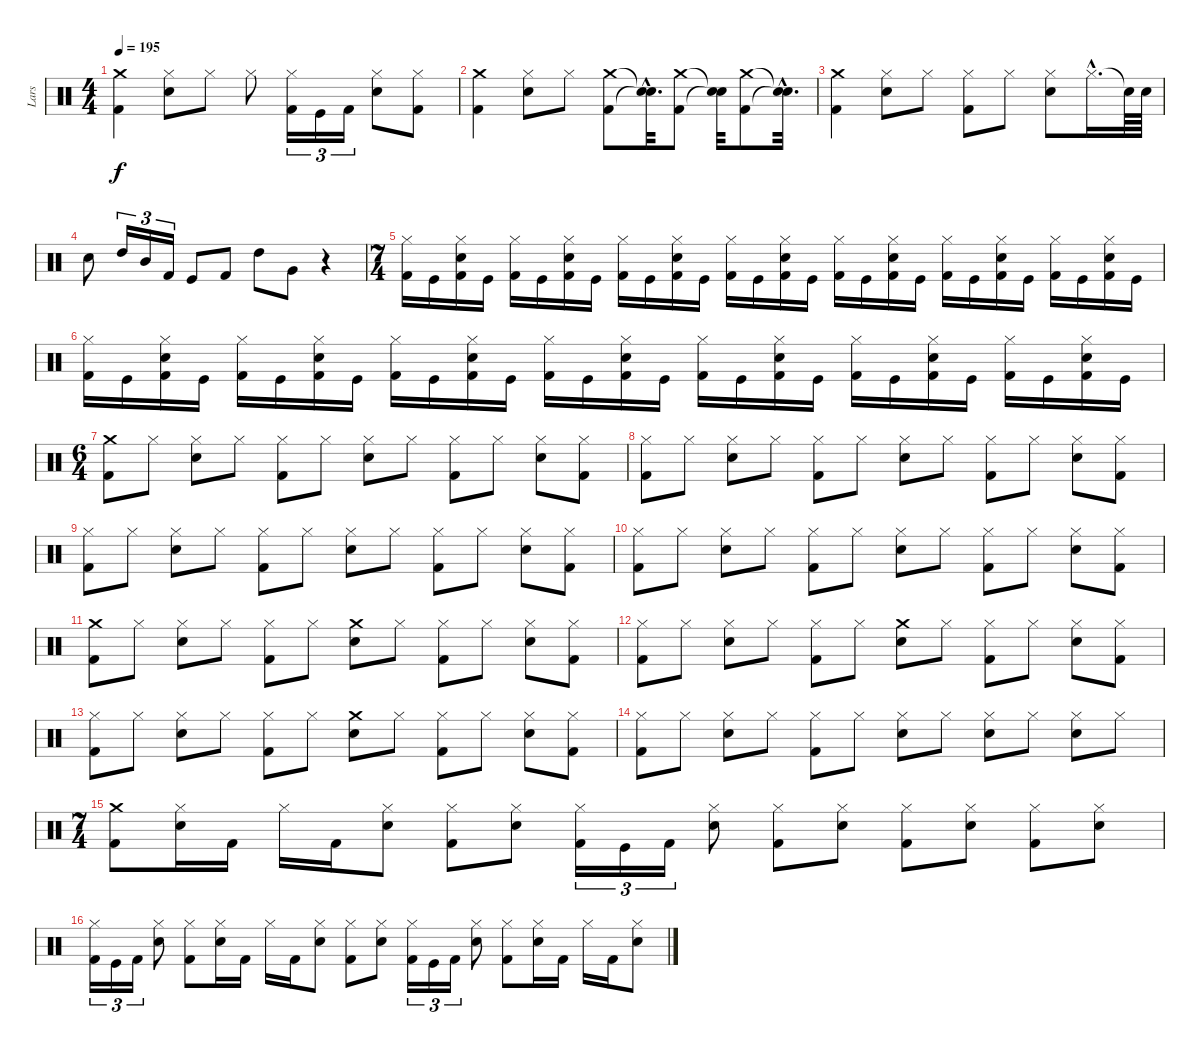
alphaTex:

\track ("Lars" "Lars") {instrument percussion}
\staff {score}
\articulation defaults
\ts (4 4)
\tempo 195
\clef neutral
\ks c
("Kick (hit) 2" "Crash medium (hit)").4{dy f} ("Snare (hit) 2" "Hi-Hat (closed)").8 "Hi-Hat (closed)".8 "Hi-Hat (closed)".8 ("Kick (hit) 2" "Hi-Hat (closed)").16{tu (3 2)} "Kick (hit)".16{tu (3 2)} "Kick (hit) 2".16{tu (3 2)} ("Snare (hit) 2" "Hi-Hat (closed)").8 ("Kick (hit) 2" "Hi-Hat (closed)").8 |
("Kick (hit) 2" "Crash medium (hit)").4 ("Hi-Hat (closed)" "Snare (hit) 2").8 "Hi-Hat (closed)".8 ("Kick (hit) 2" "Crash medium (hit)").8 ("Snare (hit)"{hac t} "Snare (hit)"{hac t}).32{d} ("Kick (hit) 2" "Crash medium (hit)").8 ("Snare (hit)"{t} "Snare (hit)"{t}).32 ("Kick (hit) 2" "Crash medium (hit)").8 ("Snare (hit)"{hac t} "Snare (hit)"{hac t}).32{d} |
("Kick (hit) 2" "Crash medium (hit)").4 ("Hi-Hat (closed)" "Snare (hit) 2").8 "Hi-Hat (closed)".8 ("Hi-Hat (closed)" "Kick (hit) 2").8 "Hi-Hat (closed)".8 ("Snare (hit) 2" "Hi-Hat (closed)").8 "Hi-Hat (closed)"{hac}.16{d} "Snare (hit)"{t}.64 "Snare (hit) 2".64 |
"Snare (hit) 2".8 "High Tom (hit)".16{tu (3 2)} "Mid Tom (hit)".16{tu (3 2)} "Kick (hit) 2".16{tu (3 2)} "Kick (hit)".8 "Kick (hit) 2".8 "High Tom (hit)".8 "Very Low Tom (hit)".8 r.4 |
\ts (7 4)
("Hi-Hat (closed)" "Kick (hit) 2").16 "Kick (hit)".16 ("Snare (hit) 2" "Hi-Hat (closed)" "Kick (hit) 2").16 "Kick (hit)".16 ("Hi-Hat (closed)" "Kick (hit) 2").16 "Kick (hit)".16 ("Snare (hit) 2" "Hi-Hat (closed)" "Kick (hit) 2").16 "Kick (hit)".16 ("Hi-Hat (closed)" "Kick (hit) 2").16 "Kick (hit)".16 ("Snare (hit) 2" "Hi-Hat (closed)" "Kick (hit) 2").16 "Kick (hit)".16 ("Hi-Hat (closed)" "Kick (hit) 2").16 "Kick (hit)".16 ("Snare (hit) 2" "Hi-Hat (closed)" "Kick (hit) 2").16 "Kick (hit)".16 ("Hi-Hat (closed)" "Kick (hit) 2").16 "Kick (hit)".16 ("Snare (hit) 2" "Hi-Hat (closed)" "Kick (hit) 2").16 "Kick (hit)".16 ("Hi-Hat (closed)" "Kick (hit) 2").16 "Kick (hit)".16 ("Snare (hit) 2" "Hi-Hat (closed)" "Kick (hit) 2").16 "Kick (hit)".16 ("Hi-Hat (closed)" "Kick (hit) 2").16 "Kick (hit)".16 ("Snare (hit) 2" "Hi-Hat (closed)" "Kick (hit) 2").16 "Kick (hit)".16 |
("Hi-Hat (closed)" "Kick (hit) 2").16 "Kick (hit)".16 ("Snare (hit) 2" "Hi-Hat (closed)" "Kick (hit) 2").16 "Kick (hit)".16 ("Hi-Hat (closed)" "Kick (hit) 2").16 "Kick (hit)".16 ("Snare (hit) 2" "Hi-Hat (closed)" "Kick (hit) 2").16 "Kick (hit)".16 ("Hi-Hat (closed)" "Kick (hit) 2").16 "Kick (hit)".16 ("Snare (hit) 2" "Hi-Hat (closed)" "Kick (hit) 2").16 "Kick (hit)".16 ("Hi-Hat (closed)" "Kick (hit) 2").16 "Kick (hit)".16 ("Snare (hit) 2" "Hi-Hat (closed)" "Kick (hit) 2").16 "Kick (hit)".16 ("Hi-Hat (closed)" "Kick (hit) 2").16 "Kick (hit)".16 ("Snare (hit) 2" "Hi-Hat (closed)" "Kick (hit) 2").16 "Kick (hit)".16 ("Hi-Hat (closed)" "Kick (hit) 2").16 "Kick (hit)".16 ("Snare (hit) 2" "Hi-Hat (closed)" "Kick (hit) 2").16 "Kick (hit)".16 ("Hi-Hat (closed)" "Kick (hit) 2").16 "Kick (hit)".16 ("Snare (hit) 2" "Hi-Hat (closed)" "Kick (hit) 2").16 "Kick (hit)".16 |
\ts (6 4)
("Kick (hit) 2" "Crash medium (hit)").8 "Hi-Hat (closed)".8 ("Snare (hit) 2" "Hi-Hat (closed)").8 "Hi-Hat (closed)".8 ("Kick (hit) 2" "Hi-Hat (closed)").8 "Hi-Hat (closed)".8 ("Snare (hit) 2" "Hi-Hat (closed)").8 "Hi-Hat (closed)".8 ("Kick (hit) 2" "Hi-Hat (closed)").8 "Hi-Hat (closed)".8 ("Snare (hit) 2" "Hi-Hat (closed)").8 ("Kick (hit) 2" "Hi-Hat (closed)").8 |
("Hi-Hat (closed)" "Kick (hit) 2").8 "Hi-Hat (closed)".8 ("Snare (hit) 2" "Hi-Hat (closed)").8 "Hi-Hat (closed)".8 ("Kick (hit) 2" "Hi-Hat (closed)").8 "Hi-Hat (closed)".8 ("Snare (hit) 2" "Hi-Hat (closed)").8 "Hi-Hat (closed)".8 ("Kick (hit) 2" "Hi-Hat (closed)").8 "Hi-Hat (closed)".8 ("Snare (hit) 2" "Hi-Hat (closed)").8 ("Kick (hit) 2" "Hi-Hat (closed)").8 |
("Hi-Hat (closed)" "Kick (hit) 2").8 "Hi-Hat (closed)".8 ("Snare (hit) 2" "Hi-Hat (closed)").8 "Hi-Hat (closed)".8 ("Kick (hit) 2" "Hi-Hat (closed)").8 "Hi-Hat (closed)".8 ("Snare (hit) 2" "Hi-Hat (closed)").8 "Hi-Hat (closed)".8 ("Kick (hit) 2" "Hi-Hat (closed)").8 "Hi-Hat (closed)".8 ("Snare (hit) 2" "Hi-Hat (closed)").8 ("Kick (hit) 2" "Hi-Hat (closed)").8 |
("Hi-Hat (closed)" "Kick (hit) 2").8 "Hi-Hat (closed)".8 ("Snare (hit) 2" "Hi-Hat (closed)").8 "Hi-Hat (closed)".8 ("Kick (hit) 2" "Hi-Hat (closed)").8 "Hi-Hat (closed)".8 ("Snare (hit) 2" "Hi-Hat (closed)").8 "Hi-Hat (closed)".8 ("Kick (hit) 2" "Hi-Hat (closed)").8 "Hi-Hat (closed)".8 ("Snare (hit) 2" "Hi-Hat (closed)").8 ("Kick (hit) 2" "Hi-Hat (closed)").8 |
("Kick (hit) 2" "Crash medium (hit)").8 "Hi-Hat (closed)".8 ("Snare (hit) 2" "Hi-Hat (closed)").8 "Hi-Hat (closed)".8 ("Kick (hit) 2" "Hi-Hat (closed)").8 "Hi-Hat (closed)".8 ("Crash medium (hit)" "Snare (hit) 2").8 "Hi-Hat (closed)".8 ("Kick (hit) 2" "Hi-Hat (closed)").8 "Hi-Hat (closed)".8 ("Snare (hit) 2" "Hi-Hat (closed)").8 ("Kick (hit) 2" "Hi-Hat (closed)").8 |
("Hi-Hat (closed)" "Kick (hit) 2").8 "Hi-Hat (closed)".8 ("Snare (hit) 2" "Hi-Hat (closed)").8 "Hi-Hat (closed)".8 ("Kick (hit) 2" "Hi-Hat (closed)").8 "Hi-Hat (closed)".8 ("Crash medium (hit)" "Snare (hit) 2").8 "Hi-Hat (closed)".8 ("Kick (hit) 2" "Hi-Hat (closed)").8 "Hi-Hat (closed)".8 ("Snare (hit) 2" "Hi-Hat (closed)").8 ("Kick (hit) 2" "Hi-Hat (closed)").8 |
("Hi-Hat (closed)" "Kick (hit) 2").8 "Hi-Hat (closed)".8 ("Snare (hit) 2" "Hi-Hat (closed)").8 "Hi-Hat (closed)".8 ("Kick (hit) 2" "Hi-Hat (closed)").8 "Hi-Hat (closed)".8 ("Crash medium (hit)" "Snare (hit) 2").8 "Hi-Hat (closed)".8 ("Kick (hit) 2" "Hi-Hat (closed)").8 "Hi-Hat (closed)".8 ("Snare (hit) 2" "Hi-Hat (closed)").8 ("Kick (hit) 2" "Hi-Hat (closed)").8 |
("Hi-Hat (closed)" "Kick (hit) 2").8 "Hi-Hat (closed)".8 ("Snare (hit) 2" "Hi-Hat (closed)").8 "Hi-Hat (closed)".8 ("Kick (hit) 2" "Hi-Hat (closed)").8 "Hi-Hat (closed)".8 ("Snare (hit) 2" "Hi-Hat (closed)").8 "Hi-Hat (closed)".8 ("Snare (hit) 2" "Hi-Hat (closed)").8 "Hi-Hat (closed)".8 ("Snare (hit) 2" "Hi-Hat (closed)").8 "Hi-Hat (closed)".8 |
\ts (7 4)
("Kick (hit) 2" "Crash medium (hit)").8 ("Snare (hit) 2" "Hi-Hat (closed)").16 "Kick (hit) 2".16 "Hi-Hat (closed)".16 "Kick (hit) 2".16 ("Snare (hit) 2" "Hi-Hat (closed)").8 ("Kick (hit) 2" "Hi-Hat (closed)").8 ("Snare (hit) 2" "Hi-Hat (closed)").8 ("Kick (hit) 2" "Hi-Hat (closed)").16{tu (3 2)} "Kick (hit)".16{tu (3 2)} "Kick (hit) 2".16{tu (3 2)} ("Snare (hit) 2" "Hi-Hat (closed)").8 ("Kick (hit) 2" "Hi-Hat (closed)").8 ("Snare (hit) 2" "Hi-Hat (closed)").8 ("Kick (hit) 2" "Hi-Hat (closed)").8 ("Snare (hit) 2" "Hi-Hat (closed)").8 ("Kick (hit) 2" "Hi-Hat (closed)").8 ("Snare (hit) 2" "Hi-Hat (closed)").8 |
("Kick (hit) 2" "Hi-Hat (closed)").16{tu (3 2)} "Kick (hit)".16{tu (3 2)} "Kick (hit) 2".16{tu (3 2)} ("Snare (hit) 2" "Hi-Hat (closed)").8 ("Kick (hit) 2" "Hi-Hat (closed)").8 ("Snare (hit) 2" "Hi-Hat (closed)").16 "Kick (hit) 2".16 "Hi-Hat (closed)".16 "Kick (hit) 2".16 ("Snare (hit) 2" "Hi-Hat (closed)").8 ("Kick (hit) 2" "Hi-Hat (closed)").8 ("Snare (hit) 2" "Hi-Hat (closed)").8 ("Kick (hit) 2" "Hi-Hat (closed)").16{tu (3 2)} "Kick (hit)".16{tu (3 2)} "Kick (hit) 2".16{tu (3 2)} ("Snare (hit) 2" "Hi-Hat (closed)").8 ("Kick (hit) 2" "Hi-Hat (closed)").8 ("Snare (hit) 2" "Hi-Hat (closed)").16 "Kick (hit) 2".16 "Hi-Hat (closed)".16 "Kick (hit) 2".16 ("Snare (hit) 2" "Hi-Hat (closed)").8
